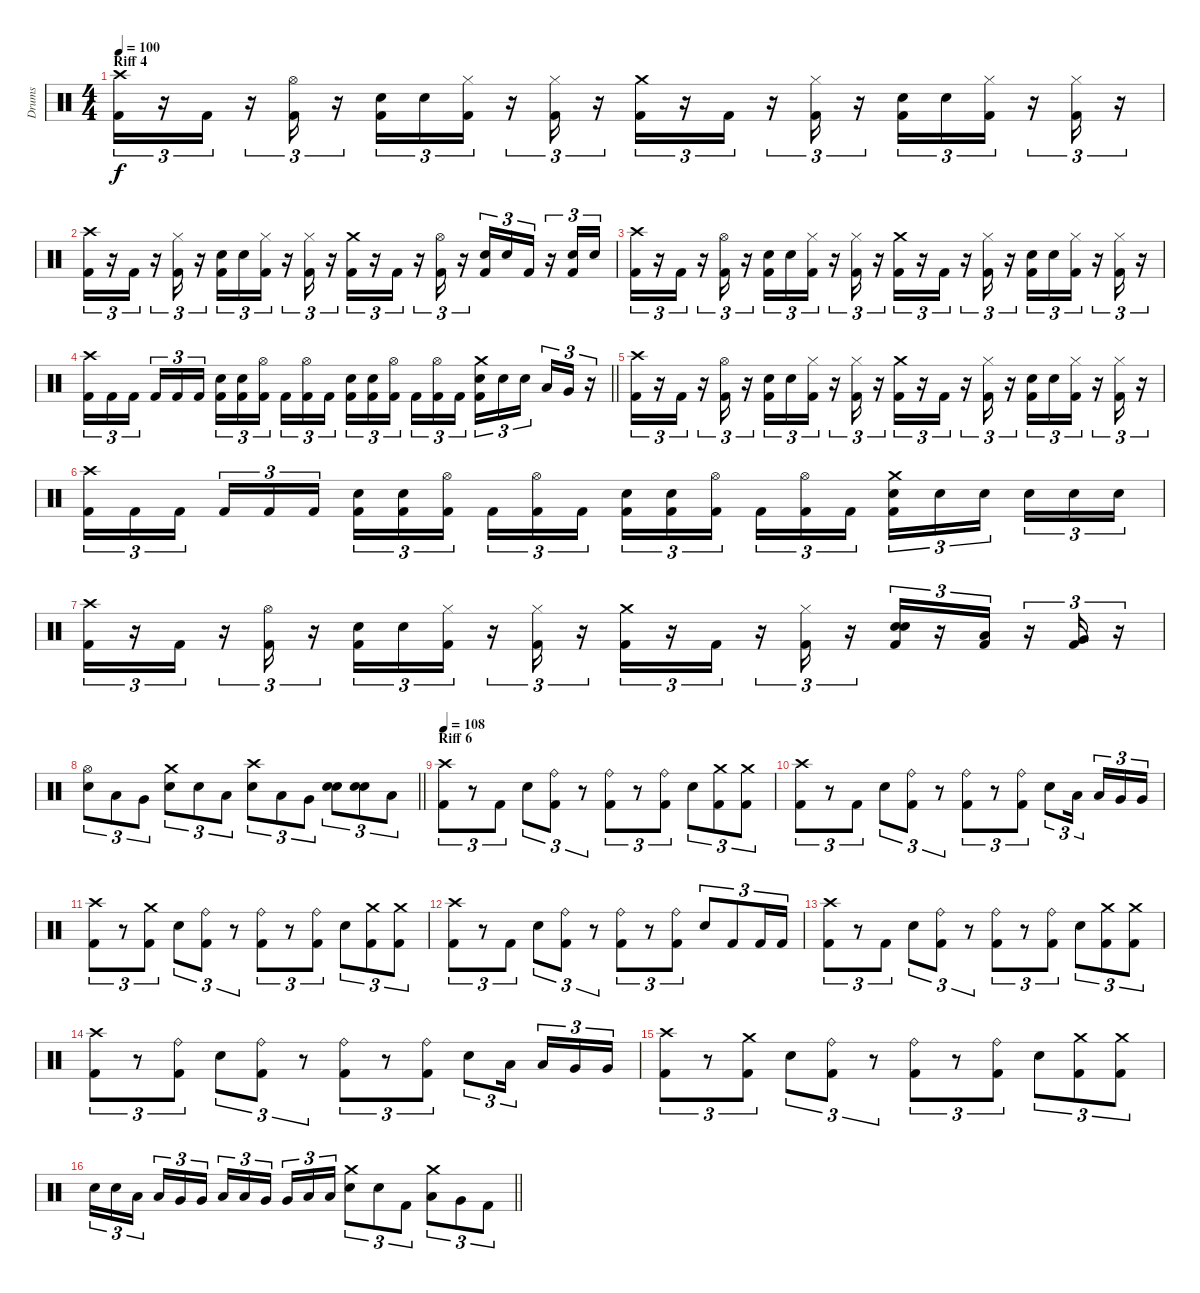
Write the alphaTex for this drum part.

\track ("Drums" "Drums") {instrument percussion}
\staff {score}
\articulation defaults
\ts (4 4)
\section ("" "Riff 4")
\tempo 100
\clef neutral
\ks c
("Crash high (hit)" "Kick (hit) 2").16{tu (3 2) dy f} r.16{tu (3 2)} "Kick (hit) 2".16{tu (3 2)} r.16{tu (3 2)} ("Hi-Hat (open)" "Kick (hit) 2").16{tu (3 2)} r.16{tu (3 2)} ("Electric Snare (hit)" "Kick (hit) 2").16{tu (3 2)} "Electric Snare (hit)".16{tu (3 2)} ("Hi-Hat (closed)" "Kick (hit) 2").16{tu (3 2)} r.16{tu (3 2)} ("Hi-Hat (closed)" "Kick (hit) 2").16{tu (3 2)} r.16{tu (3 2)} ("Crash medium (hit)" "Kick (hit) 2").16{tu (3 2)} r.16{tu (3 2)} "Kick (hit) 2".16{tu (3 2)} r.16{tu (3 2)} ("Hi-Hat (closed)" "Kick (hit) 2").16{tu (3 2)} r.16{tu (3 2)} ("Electric Snare (hit)" "Kick (hit) 2").16{tu (3 2)} "Electric Snare (hit)".16{tu (3 2)} ("Hi-Hat (closed)" "Kick (hit) 2").16{tu (3 2)} r.16{tu (3 2)} ("Hi-Hat (closed)" "Kick (hit) 2").16{tu (3 2)} r.16{tu (3 2)} |
("Crash high (hit)" "Kick (hit) 2").16{tu (3 2)} r.16{tu (3 2)} "Kick (hit) 2".16{tu (3 2)} r.16{tu (3 2)} ("Hi-Hat (closed)" "Kick (hit) 2").16{tu (3 2)} r.16{tu (3 2)} ("Electric Snare (hit)" "Kick (hit) 2").16{tu (3 2)} "Electric Snare (hit)".16{tu (3 2)} ("Hi-Hat (closed)" "Kick (hit) 2").16{tu (3 2)} r.16{tu (3 2)} ("Hi-Hat (closed)" "Kick (hit) 2").16{tu (3 2)} r.16{tu (3 2)} ("Crash medium (hit)" "Kick (hit) 2").16{tu (3 2)} r.16{tu (3 2)} "Kick (hit) 2".16{tu (3 2)} r.16{tu (3 2)} ("Hi-Hat (open)" "Kick (hit) 2").16{tu (3 2)} r.16{tu (3 2)} ("Electric Snare (hit)" "Kick (hit) 2").16{tu (3 2)} "Electric Snare (hit)".16{tu (3 2)} "Kick (hit) 2".16{tu (3 2)} r.16{tu (3 2)} ("Electric Snare (hit)" "Kick (hit) 2").16{tu (3 2)} "Electric Snare (hit)".16{tu (3 2)} |
("Crash high (hit)" "Kick (hit) 2").16{tu (3 2)} r.16{tu (3 2)} "Kick (hit) 2".16{tu (3 2)} r.16{tu (3 2)} ("Hi-Hat (open)" "Kick (hit) 2").16{tu (3 2)} r.16{tu (3 2)} ("Electric Snare (hit)" "Kick (hit) 2").16{tu (3 2)} "Electric Snare (hit)".16{tu (3 2)} ("Hi-Hat (closed)" "Kick (hit) 2").16{tu (3 2)} r.16{tu (3 2)} ("Hi-Hat (closed)" "Kick (hit) 2").16{tu (3 2)} r.16{tu (3 2)} ("Crash medium (hit)" "Kick (hit) 2").16{tu (3 2)} r.16{tu (3 2)} "Kick (hit) 2".16{tu (3 2)} r.16{tu (3 2)} ("Hi-Hat (closed)" "Kick (hit) 2").16{tu (3 2)} r.16{tu (3 2)} ("Electric Snare (hit)" "Kick (hit) 2").16{tu (3 2)} "Electric Snare (hit)".16{tu (3 2)} ("Hi-Hat (closed)" "Kick (hit) 2").16{tu (3 2)} r.16{tu (3 2)} ("Hi-Hat (closed)" "Kick (hit) 2").16{tu (3 2)} r.16{tu (3 2)} |
\barLineRight lightlight
("Crash high (hit)" "Kick (hit) 2").16{tu (3 2)} "Kick (hit) 2".16{tu (3 2)} "Kick (hit) 2".16{tu (3 2) beam splitsecondary} "Kick (hit) 2".16{tu (3 2)} "Kick (hit) 2".16{tu (3 2)} "Kick (hit) 2".16{tu (3 2)} ("Electric Snare (hit)" "Kick (hit) 2").16{tu (3 2)} ("Electric Snare (hit)" "Kick (hit) 2").16{tu (3 2)} ("Hi-Hat (open)" "Kick (hit) 2").16{tu (3 2) beam splitsecondary} "Kick (hit) 2".16{tu (3 2)} ("Hi-Hat (open)" "Kick (hit) 2").16{tu (3 2)} "Kick (hit) 2".16{tu (3 2)} ("Electric Snare (hit)" "Kick (hit) 2").16{tu (3 2)} ("Electric Snare (hit)" "Kick (hit) 2").16{tu (3 2)} ("Hi-Hat (open)" "Kick (hit) 2").16{tu (3 2) beam splitsecondary} "Kick (hit) 2".16{tu (3 2)} ("Hi-Hat (open)" "Kick (hit) 2").16{tu (3 2)} "Kick (hit) 2".16{tu (3 2)} ("Crash medium (hit)" "Electric Snare (hit)" "Kick (hit) 2").16{tu (3 2)} "Electric Snare (hit)".16{tu (3 2)} "Electric Snare (hit)".16{tu (3 2) beam splitsecondary} "Low Tom (hit)".16{tu (3 2)} "Very Low Tom (hit)".16{tu (3 2)} r.16{tu (3 2)} |
("Crash high (hit)" "Kick (hit) 2").16{tu (3 2)} r.16{tu (3 2)} "Kick (hit) 2".16{tu (3 2)} r.16{tu (3 2)} ("Hi-Hat (open)" "Kick (hit) 2").16{tu (3 2)} r.16{tu (3 2)} ("Electric Snare (hit)" "Kick (hit) 2").16{tu (3 2)} "Electric Snare (hit)".16{tu (3 2)} ("Hi-Hat (closed)" "Kick (hit) 2").16{tu (3 2)} r.16{tu (3 2)} ("Hi-Hat (closed)" "Kick (hit) 2").16{tu (3 2)} r.16{tu (3 2)} ("Crash medium (hit)" "Kick (hit) 2").16{tu (3 2)} r.16{tu (3 2)} "Kick (hit) 2".16{tu (3 2)} r.16{tu (3 2)} ("Hi-Hat (closed)" "Kick (hit) 2").16{tu (3 2)} r.16{tu (3 2)} ("Electric Snare (hit)" "Kick (hit) 2").16{tu (3 2)} "Electric Snare (hit)".16{tu (3 2)} ("Hi-Hat (closed)" "Kick (hit) 2").16{tu (3 2)} r.16{tu (3 2)} ("Hi-Hat (closed)" "Kick (hit) 2").16{tu (3 2)} r.16{tu (3 2)} |
("Crash high (hit)" "Kick (hit) 2").16{tu (3 2)} "Kick (hit) 2".16{tu (3 2)} "Kick (hit) 2".16{tu (3 2) beam splitsecondary} "Kick (hit) 2".16{tu (3 2)} "Kick (hit) 2".16{tu (3 2)} "Kick (hit) 2".16{tu (3 2)} ("Electric Snare (hit)" "Kick (hit) 2").16{tu (3 2)} ("Electric Snare (hit)" "Kick (hit) 2").16{tu (3 2)} ("Hi-Hat (open)" "Kick (hit) 2").16{tu (3 2) beam splitsecondary} "Kick (hit) 2".16{tu (3 2)} ("Hi-Hat (open)" "Kick (hit) 2").16{tu (3 2)} "Kick (hit) 2".16{tu (3 2)} ("Electric Snare (hit)" "Kick (hit) 2").16{tu (3 2)} ("Electric Snare (hit)" "Kick (hit) 2").16{tu (3 2)} ("Hi-Hat (open)" "Kick (hit) 2").16{tu (3 2) beam splitsecondary} "Kick (hit) 2".16{tu (3 2)} ("Hi-Hat (open)" "Kick (hit) 2").16{tu (3 2)} "Kick (hit) 2".16{tu (3 2)} ("Crash medium (hit)" "Electric Snare (hit)" "Kick (hit) 2").16{tu (3 2)} "Electric Snare (hit)".16{tu (3 2)} "Electric Snare (hit)".16{tu (3 2) beam splitsecondary} "Electric Snare (hit)".16{tu (3 2)} "Electric Snare (hit)".16{tu (3 2)} "Electric Snare (hit)".16{tu (3 2)} |
("Crash high (hit)" "Kick (hit) 2").16{tu (3 2)} r.16{tu (3 2)} "Kick (hit) 2".16{tu (3 2)} r.16{tu (3 2)} ("Hi-Hat (open)" "Kick (hit) 2").16{tu (3 2)} r.16{tu (3 2)} ("Electric Snare (hit)" "Kick (hit) 2").16{tu (3 2)} "Electric Snare (hit)".16{tu (3 2)} ("Hi-Hat (closed)" "Kick (hit) 2").16{tu (3 2)} r.16{tu (3 2)} ("Hi-Hat (closed)" "Kick (hit) 2").16{tu (3 2)} r.16{tu (3 2)} ("Crash medium (hit)" "Kick (hit) 2").16{tu (3 2)} r.16{tu (3 2)} "Kick (hit) 2".16{tu (3 2)} r.16{tu (3 2)} ("Hi-Hat (closed)" "Kick (hit) 2").16{tu (3 2)} r.16{tu (3 2)} ("Electric Snare (hit)" "Electric Snare (hit)" "Kick (hit) 2").16{tu (3 2) bd 60} r.16{tu (3 2)} ("Low Tom (hit)" "Kick (hit) 2").16{tu (3 2)} r.16{tu (3 2)} ("Very Low Tom (hit)" "Kick (hit) 2").16{tu (3 2)} r.16{tu (3 2)} |
\barLineRight lightlight
("Hi-Hat (open)" "Electric Snare (hit)").8{tu (3 2)} "Low Tom (hit)".8{tu (3 2)} "Very Low Tom (hit)".8{tu (3 2)} ("Crash medium (hit)" "Electric Snare (hit)").8{tu (3 2)} "Electric Snare (hit)".8{tu (3 2)} "Low Floor Tom (hit)".8{tu (3 2)} ("Crash high (hit)" "Electric Snare (hit)").8{tu (3 2)} "Low Tom (hit)".8{tu (3 2)} "Very Low Tom (hit)".8{tu (3 2)} ("Electric Snare (hit)" "Electric Snare (hit)").8{tu (3 2) bd 60} ("Electric Snare (hit)" "Electric Snare (hit)").8{tu (3 2) bd 60} "Low Floor Tom (hit)".8{tu (3 2)} |
\section ("" "Riff 6")
\tempo 108
("Crash high (hit)" "Kick (hit) 2").8{tu (3 2)} r.8{tu (3 2)} "Kick (hit) 2".8{tu (3 2)} "Electric Snare (hit)".8{tu (3 2)} ("Ride (bell)" "Kick (hit) 2").8{tu (3 2)} r.8{tu (3 2)} ("Ride (bell)" "Kick (hit) 2").8{tu (3 2)} r.8{tu (3 2)} ("Ride (bell)" "Kick (hit) 2").8{tu (3 2)} "Electric Snare (hit)".8{tu (3 2)} ("Crash medium (hit)" "Kick (hit) 2").8{tu (3 2)} ("Crash medium (hit)" "Kick (hit) 2").8{tu (3 2)} |
("Crash high (hit)" "Kick (hit) 2").8{tu (3 2)} r.8{tu (3 2)} "Kick (hit) 2".8{tu (3 2)} "Electric Snare (hit)".8{tu (3 2)} ("Ride (bell)" "Kick (hit) 2").8{tu (3 2)} r.8{tu (3 2)} ("Ride (bell)" "Kick (hit) 2").8{tu (3 2)} r.8{tu (3 2)} ("Ride (bell)" "Kick (hit) 2").8{tu (3 2)} "Electric Snare (hit)".8{tu (3 2)} "Low Tom (hit)".16{tu (3 2) beam splitsecondary} "Low Tom (hit)".16{tu (3 2)} "Very Low Tom (hit)".16{tu (3 2)} "Very Low Tom (hit)".16{tu (3 2)} |
("Crash high (hit)" "Kick (hit) 2").8{tu (3 2)} r.8{tu (3 2)} ("Crash medium (hit)" "Kick (hit) 2").8{tu (3 2)} "Electric Snare (hit)".8{tu (3 2)} ("Ride (bell)" "Kick (hit) 2").8{tu (3 2)} r.8{tu (3 2)} ("Ride (bell)" "Kick (hit) 2").8{tu (3 2)} r.8{tu (3 2)} ("Ride (bell)" "Kick (hit) 2").8{tu (3 2)} "Electric Snare (hit)".8{tu (3 2)} ("Crash medium (hit)" "Kick (hit) 2").8{tu (3 2)} ("Crash medium (hit)" "Kick (hit) 2").8{tu (3 2)} |
("Crash high (hit)" "Kick (hit) 2").8{tu (3 2)} r.8{tu (3 2)} "Kick (hit) 2".8{tu (3 2)} "Electric Snare (hit)".8{tu (3 2)} ("Ride (bell)" "Kick (hit) 2").8{tu (3 2)} r.8{tu (3 2)} ("Ride (bell)" "Kick (hit) 2").8{tu (3 2)} r.8{tu (3 2)} ("Ride (bell)" "Kick (hit) 2").8{tu (3 2)} "Electric Snare (hit)".8{tu (3 2)} "Kick (hit) 2".8{tu (3 2)} "Kick (hit) 2".16{tu (3 2)} "Kick (hit) 2".16{tu (3 2)} |
("Crash high (hit)" "Kick (hit) 2").8{tu (3 2)} r.8{tu (3 2)} "Kick (hit) 2".8{tu (3 2)} "Electric Snare (hit)".8{tu (3 2)} ("Ride (bell)" "Kick (hit) 2").8{tu (3 2)} r.8{tu (3 2)} ("Ride (bell)" "Kick (hit) 2").8{tu (3 2)} r.8{tu (3 2)} ("Ride (bell)" "Kick (hit) 2").8{tu (3 2)} "Electric Snare (hit)".8{tu (3 2)} ("Crash medium (hit)" "Kick (hit) 2").8{tu (3 2)} ("Crash medium (hit)" "Kick (hit) 2").8{tu (3 2)} |
("Crash high (hit)" "Kick (hit) 2").8{tu (3 2)} r.8{tu (3 2)} ("Ride (bell)" "Kick (hit) 2").8{tu (3 2)} "Electric Snare (hit)".8{tu (3 2)} ("Ride (bell)" "Kick (hit) 2").8{tu (3 2)} r.8{tu (3 2)} ("Ride (bell)" "Kick (hit) 2").8{tu (3 2)} r.8{tu (3 2)} ("Ride (bell)" "Kick (hit) 2").8{tu (3 2)} "Electric Snare (hit)".8{tu (3 2)} "Low Tom (hit)".16{tu (3 2) beam splitsecondary} "Low Tom (hit)".16{tu (3 2)} "Very Low Tom (hit)".16{tu (3 2)} "Very Low Tom (hit)".16{tu (3 2)} |
("Crash high (hit)" "Kick (hit) 2").8{tu (3 2)} r.8{tu (3 2)} ("Crash medium (hit)" "Kick (hit) 2").8{tu (3 2)} "Electric Snare (hit)".8{tu (3 2)} ("Ride (bell)" "Kick (hit) 2").8{tu (3 2)} r.8{tu (3 2)} ("Ride (bell)" "Kick (hit) 2").8{tu (3 2)} r.8{tu (3 2)} ("Ride (bell)" "Kick (hit) 2").8{tu (3 2)} "Electric Snare (hit)".8{tu (3 2)} ("Crash medium (hit)" "Kick (hit) 2").8{tu (3 2)} ("Crash medium (hit)" "Kick (hit) 2").8{tu (3 2)} |
\barLineRight lightlight "Electric Snare (hit)".16{tu (3 2)} "Electric Snare (hit)".16{tu (3 2)} "Low Tom (hit)".16{tu (3 2) beam splitsecondary} "Low Tom (hit)".16{tu (3 2)} "Very Low Tom (hit)".16{tu (3 2)} "Very Low Tom (hit)".16{tu (3 2)} "Low Tom (hit)".16{tu (3 2)} "Low Tom (hit)".16{tu (3 2)} "Very Low Tom (hit)".16{tu (3 2) beam splitsecondary} "Very Low Tom (hit)".16{tu (3 2)} "Low Floor Tom (hit)".16{tu (3 2)} "Low Floor Tom (hit)".16{tu (3 2)}
("Crash medium (hit)" "Electric Snare (hit)").8{tu (3 2)} "Electric Snare (hit)".8{tu (3 2)} "Kick (hit) 2".8{tu (3 2)} ("Crash medium (hit)" "Low Tom (hit)").8{tu (3 2)} "Very Low Tom (hit)".8{tu (3 2)} "Kick (hit) 2".8{tu (3 2)}
